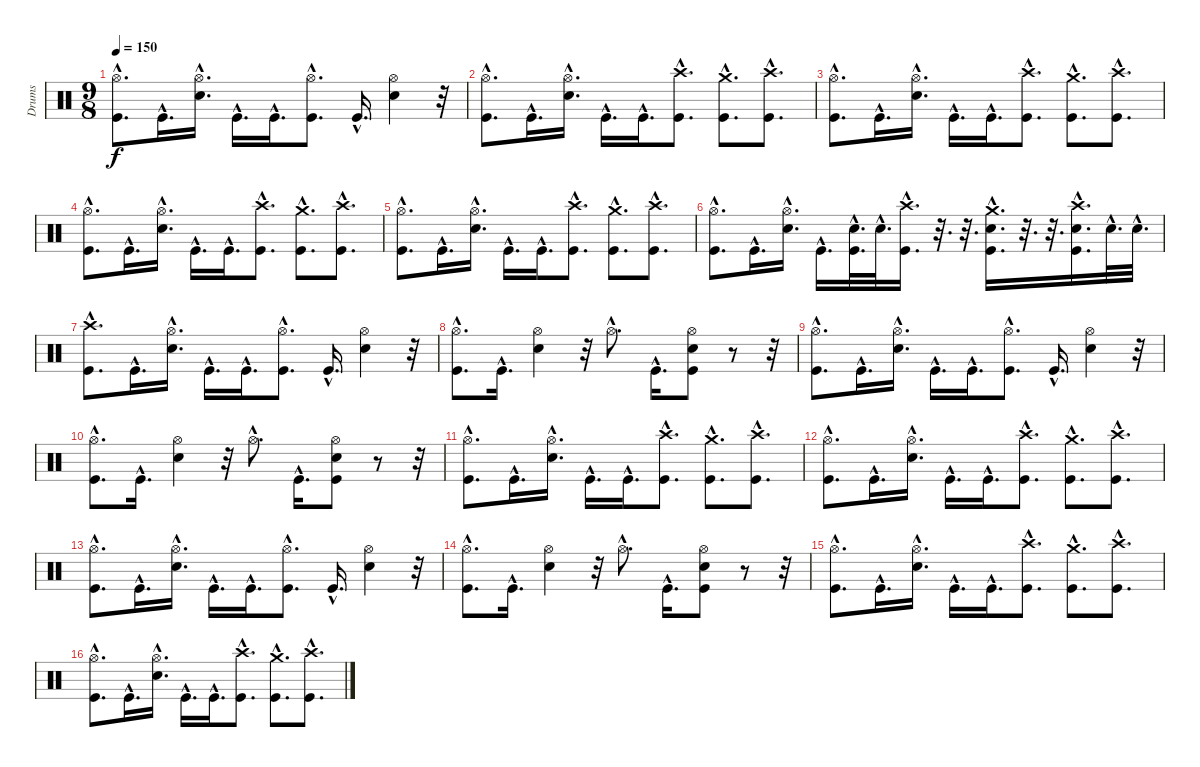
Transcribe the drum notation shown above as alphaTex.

\track ("Drums" "Drums") {instrument percussion}
\staff {score}
\articulation defaults
\ts (9 8)
\tempo 150
\clef neutral
\ks c
("Hi-Hat (open)"{hac} "Kick (hit)"{hac}).8{d dy f} "Kick (hit)"{hac}.16{d} ("Hi-Hat (open)"{hac} "Snare (hit) 2"{hac}).16{d} "Kick (hit)"{hac}.16{d} "Kick (hit)"{hac}.16{d} ("Hi-Hat (open)"{hac} "Kick (hit)"{hac}).8{d} "Kick (hit)"{hac}.16{d} ("Hi-Hat (open)" "Snare (hit) 2").4 r.32 |
("Hi-Hat (open)"{hac} "Kick (hit)"{hac}).8{d} "Kick (hit)"{hac}.16{d} ("Hi-Hat (open)"{hac} "Snare (hit) 2"{hac}).16{d} "Kick (hit)"{hac}.16{d} "Kick (hit)"{hac}.16{d} ("Crash high (hit)"{hac} "Kick (hit)"{hac}).8{d} ("Crash medium (hit)"{hac} "Kick (hit)"{hac}).8{d} ("Crash high (hit)"{hac} "Kick (hit)"{hac}).8{d} |
("Hi-Hat (open)"{hac} "Kick (hit)"{hac}).8{d} "Kick (hit)"{hac}.16{d} ("Hi-Hat (open)"{hac} "Snare (hit) 2"{hac}).16{d} "Kick (hit)"{hac}.16{d} "Kick (hit)"{hac}.16{d} ("Crash high (hit)"{hac} "Kick (hit)"{hac}).8{d} ("Crash medium (hit)"{hac} "Kick (hit)"{hac}).8{d} ("Crash high (hit)"{hac} "Kick (hit)"{hac}).8{d} |
("Hi-Hat (open)"{hac} "Kick (hit)"{hac}).8{d} "Kick (hit)"{hac}.16{d} ("Hi-Hat (open)"{hac} "Snare (hit) 2"{hac}).16{d} "Kick (hit)"{hac}.16{d} "Kick (hit)"{hac}.16{d} ("Crash high (hit)"{hac} "Kick (hit)"{hac}).8{d} ("Crash medium (hit)"{hac} "Kick (hit)"{hac}).8{d} ("Crash high (hit)"{hac} "Kick (hit)"{hac}).8{d} |
("Hi-Hat (open)"{hac} "Kick (hit)"{hac}).8{d} "Kick (hit)"{hac}.16{d} ("Hi-Hat (open)"{hac} "Snare (hit) 2"{hac}).16{d} "Kick (hit)"{hac}.16{d} "Kick (hit)"{hac}.16{d} ("Crash high (hit)"{hac} "Kick (hit)"{hac}).8{d} ("Crash medium (hit)"{hac} "Kick (hit)"{hac}).8{d} ("Crash high (hit)"{hac} "Kick (hit)"{hac}).8{d} |
("Hi-Hat (open)"{hac} "Kick (hit)"{hac}).8{d} "Kick (hit)"{hac}.16{d} ("Hi-Hat (open)"{hac} "Snare (hit) 2"{hac}).16{d} "Kick (hit)"{hac}.16{d} ("Snare (hit) 2"{hac} "Kick (hit)"{hac}).32{d} "Snare (hit) 2"{hac}.32{d} ("Crash high (hit)"{hac} "Kick (hit)"{hac}).16{d} r.32{d} r.32{d} ("Crash medium (hit)"{hac} "Snare (hit) 2"{hac} "Kick (hit)"{hac}).16{d} r.32{d} r.32{d} ("Crash high (hit)"{hac} "Snare (hit) 2"{hac} "Kick (hit)"{hac}).16{d} "Snare (hit) 2"{hac}.32{d} "Snare (hit) 2"{hac}.32{d} |
("Crash high (hit)"{hac} "Kick (hit)"{hac}).8{d} "Kick (hit)"{hac}.16{d} ("Hi-Hat (open)"{hac} "Snare (hit) 2"{hac}).16{d} "Kick (hit)"{hac}.16{d} "Kick (hit)"{hac}.16{d} ("Hi-Hat (open)"{hac} "Kick (hit)"{hac}).8{d} "Kick (hit)"{hac}.16{d} ("Hi-Hat (open)" "Snare (hit) 2").4 r.32 |
("Hi-Hat (open)"{hac} "Kick (hit)"{hac}).8{d} "Kick (hit)"{hac}.16{d} ("Hi-Hat (open)" "Snare (hit) 2").4 r.32 "Hi-Hat (open)"{hac}.8{d} "Kick (hit)"{hac}.16{d} ("Hi-Hat (open)" "Snare (hit) 2" "Kick (hit)").8 r.8 r.32 |
("Hi-Hat (open)"{hac} "Kick (hit)"{hac}).8{d} "Kick (hit)"{hac}.16{d} ("Hi-Hat (open)"{hac} "Snare (hit) 2"{hac}).16{d} "Kick (hit)"{hac}.16{d} "Kick (hit)"{hac}.16{d} ("Hi-Hat (open)"{hac} "Kick (hit)"{hac}).8{d} "Kick (hit)"{hac}.16{d} ("Hi-Hat (open)" "Snare (hit) 2").4 r.32 |
("Hi-Hat (open)"{hac} "Kick (hit)"{hac}).8{d} "Kick (hit)"{hac}.16{d} ("Hi-Hat (open)" "Snare (hit) 2").4 r.32 "Hi-Hat (open)"{hac}.8{d} "Kick (hit)"{hac}.16{d} ("Hi-Hat (open)" "Snare (hit) 2" "Kick (hit)").8 r.8 r.32 |
("Hi-Hat (open)"{hac} "Kick (hit)"{hac}).8{d} "Kick (hit)"{hac}.16{d} ("Hi-Hat (open)"{hac} "Snare (hit) 2"{hac}).16{d} "Kick (hit)"{hac}.16{d} "Kick (hit)"{hac}.16{d} ("Crash high (hit)"{hac} "Kick (hit)"{hac}).8{d} ("Crash medium (hit)"{hac} "Kick (hit)"{hac}).8{d} ("Crash high (hit)"{hac} "Kick (hit)"{hac}).8{d} |
("Hi-Hat (open)"{hac} "Kick (hit)"{hac}).8{d} "Kick (hit)"{hac}.16{d} ("Hi-Hat (open)"{hac} "Snare (hit) 2"{hac}).16{d} "Kick (hit)"{hac}.16{d} "Kick (hit)"{hac}.16{d} ("Crash high (hit)"{hac} "Kick (hit)"{hac}).8{d} ("Crash medium (hit)"{hac} "Kick (hit)"{hac}).8{d} ("Crash high (hit)"{hac} "Kick (hit)"{hac}).8{d} |
("Hi-Hat (open)"{hac} "Kick (hit)"{hac}).8{d} "Kick (hit)"{hac}.16{d} ("Hi-Hat (open)"{hac} "Snare (hit) 2"{hac}).16{d} "Kick (hit)"{hac}.16{d} "Kick (hit)"{hac}.16{d} ("Hi-Hat (open)"{hac} "Kick (hit)"{hac}).8{d} "Kick (hit)"{hac}.16{d} ("Hi-Hat (open)" "Snare (hit) 2").4 r.32 |
("Hi-Hat (open)"{hac} "Kick (hit)"{hac}).8{d} "Kick (hit)"{hac}.16{d} ("Hi-Hat (open)" "Snare (hit) 2").4 r.32 "Hi-Hat (open)"{hac}.8{d} "Kick (hit)"{hac}.16{d} ("Hi-Hat (open)" "Snare (hit) 2" "Kick (hit)").8 r.8 r.32 |
("Hi-Hat (open)"{hac} "Kick (hit)"{hac}).8{d} "Kick (hit)"{hac}.16{d} ("Hi-Hat (open)"{hac} "Snare (hit) 2"{hac}).16{d} "Kick (hit)"{hac}.16{d} "Kick (hit)"{hac}.16{d} ("Crash high (hit)"{hac} "Kick (hit)"{hac}).8{d} ("Crash medium (hit)"{hac} "Kick (hit)"{hac}).8{d} ("Crash high (hit)"{hac} "Kick (hit)"{hac}).8{d} |
("Hi-Hat (open)"{hac} "Kick (hit)"{hac}).8{d} "Kick (hit)"{hac}.16{d} ("Hi-Hat (open)"{hac} "Snare (hit) 2"{hac}).16{d} "Kick (hit)"{hac}.16{d} "Kick (hit)"{hac}.16{d} ("Crash high (hit)"{hac} "Kick (hit)"{hac}).8{d} ("Crash medium (hit)"{hac} "Kick (hit)"{hac}).8{d} ("Crash high (hit)"{hac} "Kick (hit)"{hac}).8{d}
